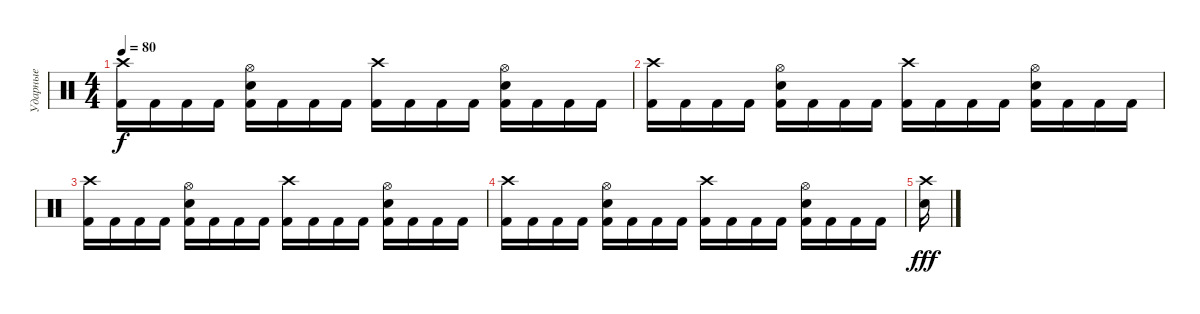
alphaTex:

\track ("Ударные" "Ударные") {instrument percussion}
\staff {score}
\articulation defaults
\ts (4 4)
\tempo 80
\clef neutral
\ks c
("Crash high (hit)" "Kick (hit) 2").16{dy f} "Kick (hit) 2".16 "Kick (hit) 2".16 "Kick (hit) 2".16 ("Snare (hit) 2" "Hi-Hat (open)" "Kick (hit) 2").16 "Kick (hit) 2".16 "Kick (hit) 2".16 "Kick (hit) 2".16 ("Crash high (hit)" "Kick (hit) 2").16 "Kick (hit) 2".16 "Kick (hit) 2".16 "Kick (hit) 2".16 ("Snare (hit) 2" "Hi-Hat (open)" "Kick (hit) 2").16 "Kick (hit) 2".16 "Kick (hit) 2".16 "Kick (hit) 2".16 |
("Crash high (hit)" "Kick (hit) 2").16 "Kick (hit) 2".16 "Kick (hit) 2".16 "Kick (hit) 2".16 ("Snare (hit) 2" "Hi-Hat (open)" "Kick (hit) 2").16 "Kick (hit) 2".16 "Kick (hit) 2".16 "Kick (hit) 2".16 ("Crash high (hit)" "Kick (hit) 2").16 "Kick (hit) 2".16 "Kick (hit) 2".16 "Kick (hit) 2".16 ("Snare (hit) 2" "Hi-Hat (open)" "Kick (hit) 2").16 "Kick (hit) 2".16 "Kick (hit) 2".16 "Kick (hit) 2".16 |
("Crash high (hit)" "Kick (hit) 2").16 "Kick (hit) 2".16 "Kick (hit) 2".16 "Kick (hit) 2".16 ("Snare (hit) 2" "Hi-Hat (open)" "Kick (hit) 2").16 "Kick (hit) 2".16 "Kick (hit) 2".16 "Kick (hit) 2".16 ("Crash high (hit)" "Kick (hit) 2").16 "Kick (hit) 2".16 "Kick (hit) 2".16 "Kick (hit) 2".16 ("Snare (hit) 2" "Hi-Hat (open)" "Kick (hit) 2").16 "Kick (hit) 2".16 "Kick (hit) 2".16 "Kick (hit) 2".16 |
("Crash high (hit)" "Kick (hit) 2").16 "Kick (hit) 2".16 "Kick (hit) 2".16 "Kick (hit) 2".16 ("Snare (hit) 2" "Hi-Hat (open)" "Kick (hit) 2").16 "Kick (hit) 2".16 "Kick (hit) 2".16 "Kick (hit) 2".16 ("Crash high (hit)" "Kick (hit) 2").16 "Kick (hit) 2".16 "Kick (hit) 2".16 "Kick (hit) 2".16 ("Snare (hit) 2" "Hi-Hat (open)" "Kick (hit) 2").16 "Kick (hit) 2".16 "Kick (hit) 2".16 "Kick (hit) 2".16 |
("Snare (hit) 2" "Crash high (hit)").16{dy fff}
